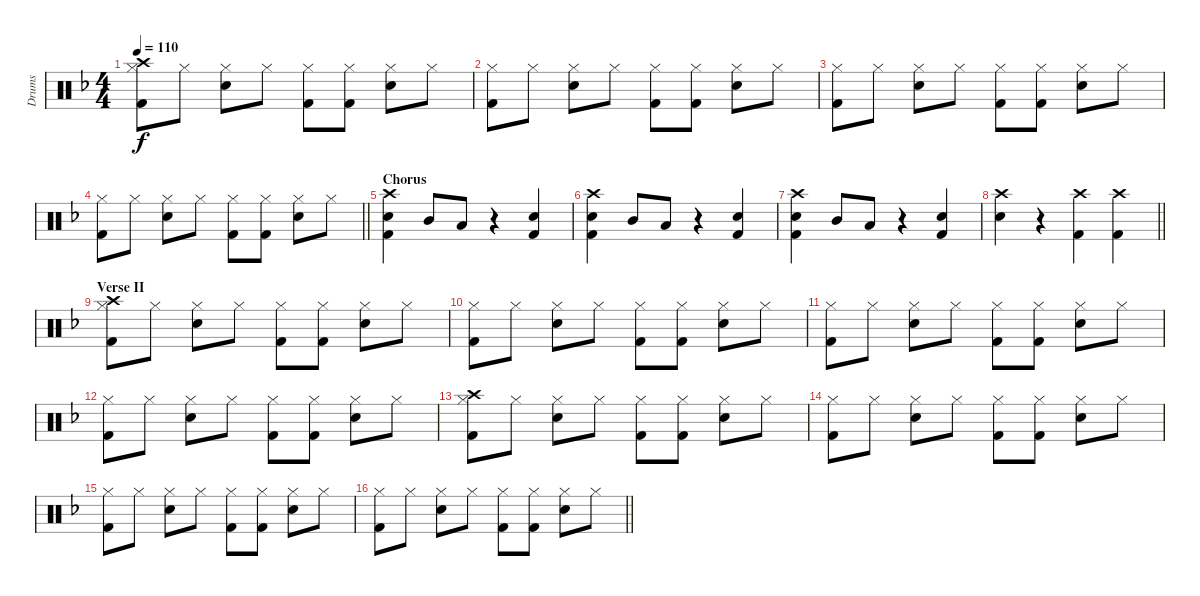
\track ("Drums" "Drums") {instrument percussion}
\staff {score}
\articulation defaults
\ts (4 4)
\tempo 110
\clef neutral
\ks f
("Crash high (hit)" "Hi-Hat (closed)" "Kick (hit) 2").8{dy f} "Hi-Hat (closed)".8 ("Hi-Hat (closed)" "Snare (hit) 2").8 "Hi-Hat (closed)".8 ("Hi-Hat (closed)" "Kick (hit) 2").8 ("Hi-Hat (closed)" "Kick (hit) 2").8 ("Hi-Hat (closed)" "Snare (hit) 2").8 "Hi-Hat (closed)".8 |
("Hi-Hat (closed)" "Kick (hit) 2").8 "Hi-Hat (closed)".8 ("Hi-Hat (closed)" "Snare (hit) 2").8 "Hi-Hat (closed)".8 ("Hi-Hat (closed)" "Kick (hit) 2").8 ("Hi-Hat (closed)" "Kick (hit) 2").8 ("Hi-Hat (closed)" "Snare (hit) 2").8 "Hi-Hat (closed)".8 |
("Hi-Hat (closed)" "Kick (hit) 2").8 "Hi-Hat (closed)".8 ("Hi-Hat (closed)" "Snare (hit) 2").8 "Hi-Hat (closed)".8 ("Hi-Hat (closed)" "Kick (hit) 2").8 ("Hi-Hat (closed)" "Kick (hit) 2").8 ("Hi-Hat (closed)" "Snare (hit) 2").8 "Hi-Hat (closed)".8 |
\barLineRight lightlight
("Hi-Hat (closed)" "Kick (hit) 2").8 "Hi-Hat (closed)".8 ("Hi-Hat (closed)" "Snare (hit) 2").8 "Hi-Hat (closed)".8 ("Hi-Hat (closed)" "Kick (hit) 2").8 ("Hi-Hat (closed)" "Kick (hit) 2").8 ("Hi-Hat (closed)" "Snare (hit) 2").8 "Hi-Hat (closed)".8 |
\section ("" "Chorus")
("Crash high (hit)" "Snare (hit) 2" "Kick (hit) 2").4 "Mid Tom (hit)".8 "Low Tom (hit)".8 r.4 ("Snare (hit) 2" "Kick (hit) 2").4 |
("Crash high (hit)" "Snare (hit) 2" "Kick (hit) 2").4 "Mid Tom (hit)".8 "Low Tom (hit)".8 r.4 ("Snare (hit) 2" "Kick (hit) 2").4 |
("Crash high (hit)" "Snare (hit) 2" "Kick (hit) 2").4 "Mid Tom (hit)".8 "Low Tom (hit)".8 r.4 ("Snare (hit) 2" "Kick (hit) 2").4 |
\barLineRight lightlight
("Crash high (hit)" "Snare (hit) 2").4 r.4 ("Crash high (hit)" "Kick (hit) 2").4 ("Crash high (hit)" "Kick (hit) 2").4 |
\section ("" "Verse II")
("Crash high (hit)" "Hi-Hat (closed)" "Kick (hit) 2").8 "Hi-Hat (closed)".8 ("Hi-Hat (closed)" "Snare (hit) 2").8 "Hi-Hat (closed)".8 ("Hi-Hat (closed)" "Kick (hit) 2").8 ("Hi-Hat (closed)" "Kick (hit) 2").8 ("Hi-Hat (closed)" "Snare (hit) 2").8 "Hi-Hat (closed)".8 |
("Hi-Hat (closed)" "Kick (hit) 2").8 "Hi-Hat (closed)".8 ("Hi-Hat (closed)" "Snare (hit) 2").8 "Hi-Hat (closed)".8 ("Hi-Hat (closed)" "Kick (hit) 2").8 ("Hi-Hat (closed)" "Kick (hit) 2").8 ("Hi-Hat (closed)" "Snare (hit) 2").8 "Hi-Hat (closed)".8 |
("Hi-Hat (closed)" "Kick (hit) 2").8 "Hi-Hat (closed)".8 ("Hi-Hat (closed)" "Snare (hit) 2").8 "Hi-Hat (closed)".8 ("Hi-Hat (closed)" "Kick (hit) 2").8 ("Hi-Hat (closed)" "Kick (hit) 2").8 ("Hi-Hat (closed)" "Snare (hit) 2").8 "Hi-Hat (closed)".8 |
("Hi-Hat (closed)" "Kick (hit) 2").8 "Hi-Hat (closed)".8 ("Hi-Hat (closed)" "Snare (hit) 2").8 "Hi-Hat (closed)".8 ("Hi-Hat (closed)" "Kick (hit) 2").8 ("Hi-Hat (closed)" "Kick (hit) 2").8 ("Hi-Hat (closed)" "Snare (hit) 2").8 "Hi-Hat (closed)".8 |
("Crash high (hit)" "Hi-Hat (closed)" "Kick (hit) 2").8 "Hi-Hat (closed)".8 ("Hi-Hat (closed)" "Snare (hit) 2").8 "Hi-Hat (closed)".8 ("Hi-Hat (closed)" "Kick (hit) 2").8 ("Hi-Hat (closed)" "Kick (hit) 2").8 ("Hi-Hat (closed)" "Snare (hit) 2").8 "Hi-Hat (closed)".8 |
("Hi-Hat (closed)" "Kick (hit) 2").8 "Hi-Hat (closed)".8 ("Hi-Hat (closed)" "Snare (hit) 2").8 "Hi-Hat (closed)".8 ("Hi-Hat (closed)" "Kick (hit) 2").8 ("Hi-Hat (closed)" "Kick (hit) 2").8 ("Hi-Hat (closed)" "Snare (hit) 2").8 "Hi-Hat (closed)".8 |
("Hi-Hat (closed)" "Kick (hit) 2").8 "Hi-Hat (closed)".8 ("Hi-Hat (closed)" "Snare (hit) 2").8 "Hi-Hat (closed)".8 ("Hi-Hat (closed)" "Kick (hit) 2").8 ("Hi-Hat (closed)" "Kick (hit) 2").8 ("Hi-Hat (closed)" "Snare (hit) 2").8 "Hi-Hat (closed)".8 |
\barLineRight lightlight
("Hi-Hat (closed)" "Kick (hit) 2").8 "Hi-Hat (closed)".8 ("Hi-Hat (closed)" "Snare (hit) 2").8 "Hi-Hat (closed)".8 ("Hi-Hat (closed)" "Kick (hit) 2").8 ("Hi-Hat (closed)" "Kick (hit) 2").8 ("Hi-Hat (closed)" "Snare (hit) 2").8 "Hi-Hat (closed)".8
